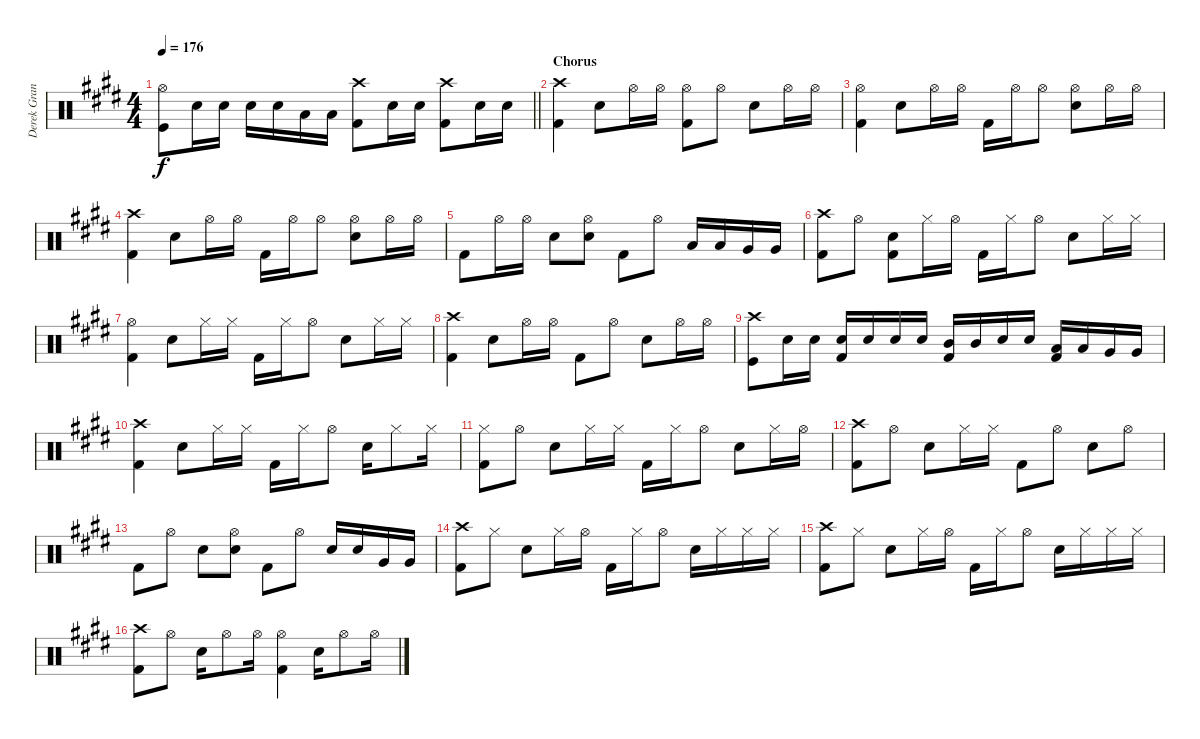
\track ("Derek Grant - Drums" "Derek Gran") {instrument percussion}
\staff {score}
\articulation defaults
\ts (4 4)
\tempo 176
\clef neutral
\barLineRight lightlight
\ks e
("Kick (hit)" "Hi-Hat (open)").8{dy f} "Snare (hit) 2".16 "Snare (hit) 2".16 "Snare (hit) 2".16 "Snare (hit) 2".16 "Low Tom (hit)".16 "Low Tom (hit)".16 ("Kick (hit) 2" "Crash high (hit)").8 "Snare (hit) 2".16 "Snare (hit) 2".16 ("Kick (hit) 2" "Crash high (hit)").8 "Snare (hit) 2".16 "Snare (hit) 2".16 |
\section ("" "Chorus")
("Crash high (hit)" "Kick (hit) 2").4 "Snare (hit) 2".8 "Hi-Hat (open)".16 "Hi-Hat (open)".16 ("Kick (hit) 2" "Hi-Hat (open)").8 "Hi-Hat (open)".8 "Snare (hit) 2".8 "Hi-Hat (open)".16 "Hi-Hat (open)".16 |
("Kick (hit) 2" "Hi-Hat (open)").4 "Snare (hit) 2".8 "Hi-Hat (open)".16 "Hi-Hat (open)".16 "Kick (hit) 2".16 "Hi-Hat (open)".16 "Hi-Hat (open)".8 ("Snare (hit) 2" "Hi-Hat (open)").8 "Hi-Hat (open)".16 "Hi-Hat (open)".16 |
("Kick (hit) 2" "Crash high (hit)").4 "Snare (hit) 2".8 "Hi-Hat (open)".16 "Hi-Hat (open)".16 "Kick (hit) 2".16 "Hi-Hat (open)".16 "Hi-Hat (open)".8 ("Snare (hit) 2" "Hi-Hat (open)").8 "Hi-Hat (open)".16 "Hi-Hat (open)".16 |
"Kick (hit) 2".8 "Hi-Hat (open)".16 "Hi-Hat (open)".16 "Snare (hit) 2".8 ("Hi-Hat (open)" "Snare (hit) 2").8 "Kick (hit) 2".8 "Hi-Hat (open)".8 "Low Tom (hit)".16 "Low Tom (hit)".16 "Very Low Tom (hit)".16 "Very Low Tom (hit)".16 |
("Kick (hit) 2" "Crash high (hit)").8 "Hi-Hat (open)".8 ("Kick (hit) 2" "Snare (hit) 2").8 "Hi-Hat (closed)".16 "Hi-Hat (open)".16 "Kick (hit) 2".16 "Hi-Hat (closed)".16 "Hi-Hat (open)".8 "Snare (hit) 2".8 "Hi-Hat (closed)".16 "Hi-Hat (closed)".16 |
("Kick (hit) 2" "Hi-Hat (open)").4 "Snare (hit) 2".8 "Hi-Hat (closed)".16 "Hi-Hat (closed)".16 "Kick (hit) 2".16 "Hi-Hat (closed)".16 "Hi-Hat (open)".8 "Snare (hit) 2".8 "Hi-Hat (closed)".16 "Hi-Hat (closed)".16 |
("Kick (hit) 2" "Crash high (hit)").4 "Snare (hit) 2".8 "Hi-Hat (open)".16 "Hi-Hat (open)".16 "Kick (hit) 2".8 "Hi-Hat (open)".8 "Snare (hit) 2".8 "Hi-Hat (open)".16 "Hi-Hat (open)".16 |
("Kick (hit)" "Crash high (hit)").8 "Snare (hit) 2".16 "Snare (hit) 2".16 ("Snare (hit) 2" "Kick (hit) 2").16 "Snare (hit) 2".16 "Snare (hit) 2".16 "Snare (hit) 2".16 ("Mid Tom (hit)" "Kick (hit) 2").16 "Mid Tom (hit)".16 "Snare (hit) 2".16 "Snare (hit) 2".16 ("Low Tom (hit)" "Kick (hit) 2").16 "Low Tom (hit)".16 "Very Low Tom (hit)".16 "Very Low Tom (hit)".16 |
("Crash high (hit)" "Kick (hit) 2").4 "Snare (hit) 2".8 "Hi-Hat (closed)".16 "Hi-Hat (closed)".16 "Kick (hit) 2".16 "Hi-Hat (closed)".16 "Hi-Hat (open)".8 "Snare (hit) 2".16 "Hi-Hat (closed)".8 "Hi-Hat (closed)".16 |
("Hi-Hat (closed)" "Kick (hit) 2").8 "Hi-Hat (open)".8 "Snare (hit) 2".8 "Hi-Hat (closed)".16 "Hi-Hat (closed)".16 "Kick (hit) 2".16 "Hi-Hat (closed)".16 "Hi-Hat (open)".8 "Snare (hit) 2".8 "Hi-Hat (closed)".16 "Hi-Hat (open)".16 |
("Crash high (hit)" "Kick (hit) 2").8 "Hi-Hat (open)".8 "Snare (hit) 2".8 "Hi-Hat (closed)".16 "Hi-Hat (closed)".16 "Kick (hit) 2".8 "Hi-Hat (open)".8 "Snare (hit) 2".8 "Hi-Hat (open)".8 |
"Kick (hit) 2".8 "Hi-Hat (open)".8 "Snare (hit) 2".8 ("Snare (hit) 2" "Hi-Hat (open)").8 "Kick (hit) 2".8 "Hi-Hat (open)".8 "Snare (hit) 2".16 "Snare (hit) 2".16 "Very Low Tom (hit)".16 "Very Low Tom (hit)".16 |
("Crash high (hit)" "Kick (hit) 2").8 "Hi-Hat (closed)".8 "Snare (hit) 2".8 "Hi-Hat (closed)".16 "Hi-Hat (open)".16 "Kick (hit) 2".16 "Hi-Hat (closed)".16 "Hi-Hat (open)".8 "Snare (hit) 2".16 "Hi-Hat (closed)".16 "Hi-Hat (closed)".16 "Hi-Hat (closed)".16 |
("Crash high (hit)" "Kick (hit) 2").8 "Hi-Hat (closed)".8 "Snare (hit) 2".8 "Hi-Hat (closed)".16 "Hi-Hat (open)".16 "Kick (hit) 2".16 "Hi-Hat (closed)".16 "Hi-Hat (open)".8 "Snare (hit) 2".16 "Hi-Hat (closed)".16 "Hi-Hat (closed)".16 "Hi-Hat (closed)".16 |
("Crash high (hit)" "Kick (hit) 2").8 "Hi-Hat (open)".8 "Snare (hit) 2".16 "Hi-Hat (open)".8 "Hi-Hat (open)".16 ("Kick (hit) 2" "Hi-Hat (open)").4 "Snare (hit) 2".16 "Hi-Hat (open)".8 "Hi-Hat (open)".16
